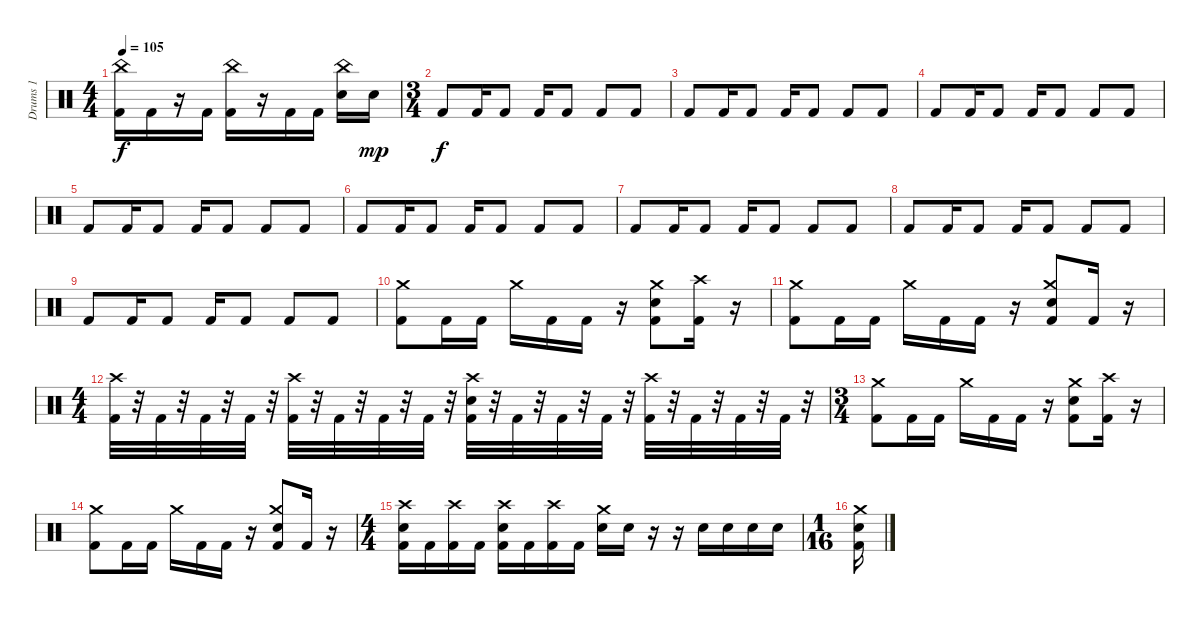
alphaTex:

\track ("Drums 1" "Drums 1") {instrument percussion}
\staff
\articulation defaults
\ts (4 4)
\tempo 105
\clef neutral
\ks c
("China (hit)" "Kick (hit) 2").16{dy f} "Kick (hit) 2".16 r.16 "Kick (hit) 2".16 ("China (hit)" "Kick (hit) 2").16 r.16 "Kick (hit) 2".16 "Kick (hit) 2".16 ("China (hit)" "Electric Snare (hit)").16 "Electric Snare (hit)".16{dy mp} |
\ts (3 4)
"Kick (hit) 2".8{dy f} "Kick (hit) 2".16 "Kick (hit) 2".8 "Kick (hit) 2".16 "Kick (hit) 2".8 "Kick (hit) 2".8 "Kick (hit) 2".8 |
"Kick (hit) 2".8 "Kick (hit) 2".16 "Kick (hit) 2".8 "Kick (hit) 2".16 "Kick (hit) 2".8 "Kick (hit) 2".8 "Kick (hit) 2".8 |
"Kick (hit) 2".8 "Kick (hit) 2".16 "Kick (hit) 2".8 "Kick (hit) 2".16 "Kick (hit) 2".8 "Kick (hit) 2".8 "Kick (hit) 2".8 |
"Kick (hit) 2".8 "Kick (hit) 2".16 "Kick (hit) 2".8 "Kick (hit) 2".16 "Kick (hit) 2".8 "Kick (hit) 2".8 "Kick (hit) 2".8 |
"Kick (hit) 2".8 "Kick (hit) 2".16 "Kick (hit) 2".8 "Kick (hit) 2".16 "Kick (hit) 2".8 "Kick (hit) 2".8 "Kick (hit) 2".8 |
"Kick (hit) 2".8 "Kick (hit) 2".16 "Kick (hit) 2".8 "Kick (hit) 2".16 "Kick (hit) 2".8 "Kick (hit) 2".8 "Kick (hit) 2".8 |
"Kick (hit) 2".8 "Kick (hit) 2".16 "Kick (hit) 2".8 "Kick (hit) 2".16 "Kick (hit) 2".8 "Kick (hit) 2".8 "Kick (hit) 2".8 |
"Kick (hit) 2".8 "Kick (hit) 2".16 "Kick (hit) 2".8 "Kick (hit) 2".16 "Kick (hit) 2".8 "Kick (hit) 2".8 "Kick (hit) 2".8 |
("Crash medium (hit)" "Kick (hit) 2").8 "Kick (hit) 2".16 "Kick (hit) 2".16 "Crash medium (hit)".16 "Kick (hit) 2".16 "Kick (hit) 2".16 r.16 ("Crash medium (hit)" "Snare (hit) 2" "Kick (hit) 2").8 ("Crash high (hit)" "Kick (hit) 2").16 r.16 |
("Crash medium (hit)" "Kick (hit) 2").8 "Kick (hit) 2".16 "Kick (hit) 2".16 "Crash medium (hit)".16 "Kick (hit) 2".16 "Kick (hit) 2".16 r.16 ("Crash medium (hit)" "Snare (hit) 2" "Kick (hit) 2").8 "Kick (hit) 2".16 r.16 |
\ts (4 4)
("Crash high (hit)" "Kick (hit) 2").32 r.32 "Kick (hit) 2".32 r.32 "Kick (hit) 2".32 r.32 "Kick (hit) 2".32 r.32 ("Crash high (hit)" "Kick (hit) 2").32 r.32 "Kick (hit) 2".32 r.32 "Kick (hit) 2".32 r.32 "Kick (hit) 2".32 r.32 ("Crash high (hit)" "Electric Snare (hit)" "Kick (hit) 2").32 r.32 "Kick (hit) 2".32 r.32 "Kick (hit) 2".32 r.32 "Kick (hit) 2".32 r.32 ("Crash high (hit)" "Kick (hit) 2").32 r.32 "Kick (hit) 2".32 r.32 "Kick (hit) 2".32 r.32 "Kick (hit) 2".32 r.32 |
\ts (3 4)
("Crash medium (hit)" "Kick (hit) 2").8 "Kick (hit) 2".16 "Kick (hit) 2".16 "Crash medium (hit)".16 "Kick (hit) 2".16 "Kick (hit) 2".16 r.16 ("Crash medium (hit)" "Snare (hit) 2" "Kick (hit) 2").8 ("Crash high (hit)" "Kick (hit) 2").16 r.16 |
("Crash medium (hit)" "Kick (hit) 2").8 "Kick (hit) 2".16 "Kick (hit) 2".16 "Crash medium (hit)".16 "Kick (hit) 2".16 "Kick (hit) 2".16 r.16 ("Crash medium (hit)" "Snare (hit) 2" "Kick (hit) 2").8 "Kick (hit) 2".16 r.16 |
\ts (4 4)
("Crash high (hit)" "Electric Snare (hit)" "Kick (hit) 2").16 "Kick (hit) 2".16 ("Crash high (hit)" "Kick (hit) 2").16 "Kick (hit) 2".16 ("Crash high (hit)" "Electric Snare (hit)" "Kick (hit) 2").16 "Kick (hit) 2".16 ("Crash high (hit)" "Kick (hit) 2").16 "Kick (hit) 2".16 ("Crash medium (hit)" "Electric Snare (hit)").16 "Electric Snare (hit)".16 r.16 r.16 "Electric Snare (hit)".16 "Electric Snare (hit)".16 "Electric Snare (hit)".16 "Electric Snare (hit)".16 |
\ts (1 16)
("Crash medium (hit)" "Electric Snare (hit)" "Kick (hit) 2").16
